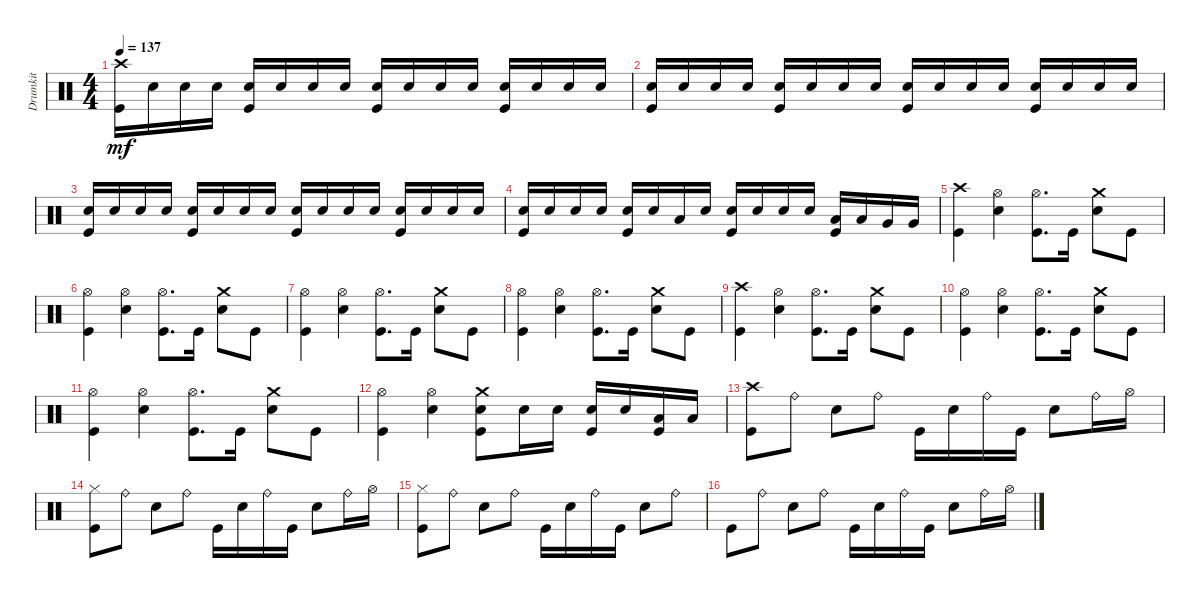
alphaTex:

\track ("Drumkit" "Drumkit") {instrument percussion}
\staff {score}
\articulation defaults
\ts (4 4)
\tempo 137
\clef neutral
\ks c
("Crash high (hit)" "Kick (hit)").16{dy mf} "Snare (hit) 2".16 "Snare (hit) 2".16 "Snare (hit) 2".16 ("Snare (hit) 2" "Kick (hit)").16 "Snare (hit) 2".16 "Snare (hit) 2".16 "Snare (hit) 2".16 ("Snare (hit) 2" "Kick (hit)").16 "Snare (hit) 2".16 "Snare (hit) 2".16 "Snare (hit) 2".16 ("Snare (hit) 2" "Kick (hit)").16 "Snare (hit) 2".16 "Snare (hit) 2".16 "Snare (hit) 2".16 |
("Snare (hit) 2" "Kick (hit)").16 "Snare (hit) 2".16 "Snare (hit) 2".16 "Snare (hit) 2".16 ("Snare (hit) 2" "Kick (hit)").16 "Snare (hit) 2".16 "Snare (hit) 2".16 "Snare (hit) 2".16 ("Snare (hit) 2" "Kick (hit)").16 "Snare (hit) 2".16 "Snare (hit) 2".16 "Snare (hit) 2".16 ("Snare (hit) 2" "Kick (hit)").16 "Snare (hit) 2".16 "Snare (hit) 2".16 "Snare (hit) 2".16 |
("Snare (hit) 2" "Kick (hit)").16 "Snare (hit) 2".16 "Snare (hit) 2".16 "Snare (hit) 2".16 ("Snare (hit) 2" "Kick (hit)").16 "Snare (hit) 2".16 "Snare (hit) 2".16 "Snare (hit) 2".16 ("Snare (hit) 2" "Kick (hit)").16 "Snare (hit) 2".16 "Snare (hit) 2".16 "Snare (hit) 2".16 ("Snare (hit) 2" "Kick (hit)").16 "Snare (hit) 2".16 "Snare (hit) 2".16 "Snare (hit) 2".16 |
("Snare (hit) 2" "Kick (hit)").16 "Snare (hit) 2".16 "Snare (hit) 2".16 "Snare (hit) 2".16 ("Snare (hit) 2" "Kick (hit)").16 "Snare (hit) 2".16 "Low Tom (hit)".16 "Snare (hit) 2".16 ("Snare (hit) 2" "Kick (hit)").16 "Snare (hit) 2".16 "Snare (hit) 2".16 "Snare (hit) 2".16 ("Low Tom (hit)" "Kick (hit)").16 "Low Tom (hit)".16 "Very Low Tom (hit)".16 "Very Low Tom (hit)".16 |
("Crash high (hit)" "Kick (hit)").4 ("Hi-Hat (open)" "Snare (hit) 2").4 ("Hi-Hat (open)" "Kick (hit)").8{d} "Kick (hit)".16 ("Crash medium (hit)" "Snare (hit) 2").8 "Kick (hit)".8 |
("Hi-Hat (open)" "Kick (hit)").4 ("Hi-Hat (open)" "Snare (hit) 2").4 ("Hi-Hat (open)" "Kick (hit)").8{d} "Kick (hit)".16 ("Crash medium (hit)" "Snare (hit) 2").8 "Kick (hit)".8 |
("Hi-Hat (open)" "Kick (hit)").4 ("Hi-Hat (open)" "Snare (hit) 2").4 ("Hi-Hat (open)" "Kick (hit)").8{d} "Kick (hit)".16 ("Crash medium (hit)" "Snare (hit) 2").8 "Kick (hit)".8 |
("Hi-Hat (open)" "Kick (hit)").4 ("Hi-Hat (open)" "Snare (hit) 2").4 ("Hi-Hat (open)" "Kick (hit)").8{d} "Kick (hit)".16 ("Crash medium (hit)" "Snare (hit) 2").8 "Kick (hit)".8 |
("Crash high (hit)" "Kick (hit)").4 ("Hi-Hat (open)" "Snare (hit) 2").4 ("Hi-Hat (open)" "Kick (hit)").8{d} "Kick (hit)".16 ("Crash medium (hit)" "Snare (hit) 2").8 "Kick (hit)".8 |
("Hi-Hat (open)" "Kick (hit)").4 ("Hi-Hat (open)" "Snare (hit) 2").4 ("Hi-Hat (open)" "Kick (hit)").8{d} "Kick (hit)".16 ("Crash medium (hit)" "Snare (hit) 2").8 "Kick (hit)".8 |
("Hi-Hat (open)" "Kick (hit)").4 ("Hi-Hat (open)" "Snare (hit) 2").4 ("Hi-Hat (open)" "Kick (hit)").8{d} "Kick (hit)".16 ("Crash medium (hit)" "Snare (hit) 2").8 "Kick (hit)".8 |
("Hi-Hat (open)" "Kick (hit)").4 ("Hi-Hat (open)" "Snare (hit) 2").4 ("Crash medium (hit)" "Snare (hit) 2" "Kick (hit)").8 "Snare (hit) 2".16 "Snare (hit) 2".16 ("Snare (hit) 2" "Kick (hit)").16 "Snare (hit) 2".16 ("Low Tom (hit)" "Kick (hit)").16 "Low Tom (hit)".16 |
("Crash high (hit)" "Kick (hit)").8 "Ride (bell)".8 "Snare (hit) 2".8 "Ride (bell)".8 "Kick (hit)".16 "Snare (hit) 2".16 "Ride (bell)".16 "Kick (hit)".16 "Snare (hit) 2".8 "Ride (bell)".16 "Hi-Hat (open)".16 |
("Kick (hit)" "Hi-Hat (closed)").8 "Ride (bell)".8 "Snare (hit) 2".8 "Ride (bell)".8 "Kick (hit)".16 "Snare (hit) 2".16 "Ride (bell)".16 "Kick (hit)".16 "Snare (hit) 2".8 "Ride (bell)".16 "Hi-Hat (open)".16 |
("Kick (hit)" "Hi-Hat (closed)").8 "Ride (bell)".8 "Snare (hit) 2".8 "Ride (bell)".8 "Kick (hit)".16 "Snare (hit) 2".16 "Ride (bell)".16 "Kick (hit)".16 "Snare (hit) 2".8 "Ride (bell)".8 |
"Kick (hit)".8 "Ride (bell)".8 "Snare (hit) 2".8 "Ride (bell)".8 "Kick (hit)".16 "Snare (hit) 2".16 "Ride (bell)".16 "Kick (hit)".16 "Snare (hit) 2".8 "Ride (bell)".16 "Hi-Hat (open)".16
